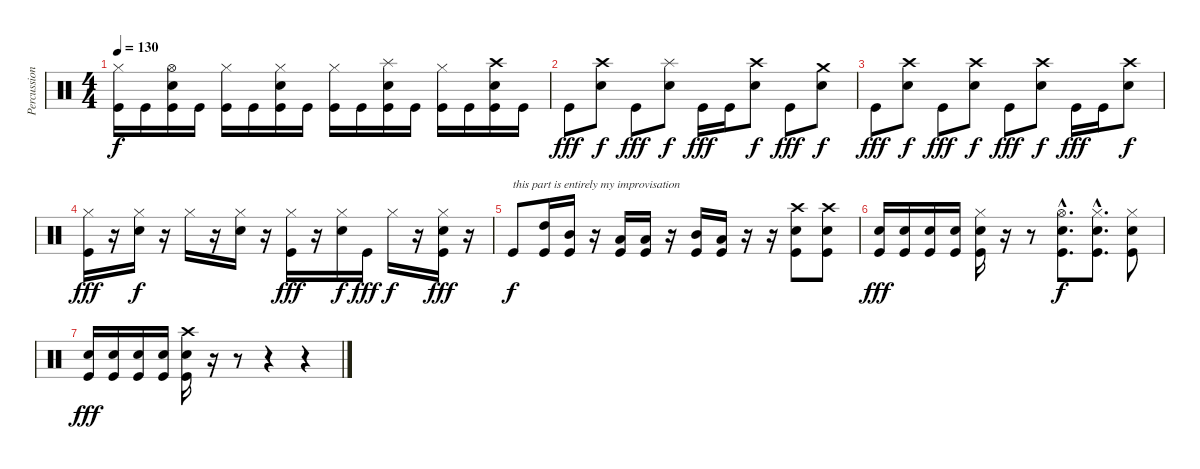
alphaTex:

\track ("Percussion" "Percussion") {instrument percussion}
\staff {score}
\articulation defaults
\ts (4 4)
\tempo 130
\clef neutral
\ks c
("Hi-Hat (closed)" "Kick (hit)").16{dy f} "Kick (hit)".16 ("Hi-Hat (open)" "Snare (hit) 2" "Kick (hit)").16 "Kick (hit)".16 ("Hi-Hat (closed)" "Kick (hit)").16 "Kick (hit)".16 ("Hi-Hat (closed)" "Snare (hit) 2" "Kick (hit)").16 "Kick (hit)".16 ("Hi-Hat (closed)" "Kick (hit)").16 "Kick (hit)".16 ("Splash (hit)" "Snare (hit) 2" "Kick (hit)").16 "Kick (hit)".16 ("Hi-Hat (closed)" "Kick (hit)").16 "Kick (hit)".16 ("Crash high (hit)" "Snare (hit) 2" "Kick (hit)").16 "Kick (hit)".16 |
"Kick (hit)".8{dy fff} ("Crash high (hit)" "Snare (hit) 2").8{dy f} "Kick (hit)".8{dy fff} ("Splash (hit)" "Snare (hit) 2").8{dy f} "Kick (hit)".16{dy fff} "Kick (hit)".16 ("Crash high (hit)" "Snare (hit) 2").8{dy f} "Kick (hit)".8{dy fff} ("Crash medium (hit)" "Snare (hit) 2").8{dy f} |
"Kick (hit)".8{dy fff} ("Crash high (hit)" "Snare (hit) 2").8{dy f} "Kick (hit)".8{dy fff} ("Crash high (hit)" "Snare (hit) 2").8{dy f} "Kick (hit)".8{dy fff} ("Crash high (hit)" "Snare (hit) 2").8{dy f} "Kick (hit)".16{dy fff} "Kick (hit)".16 ("Crash high (hit)" "Snare (hit) 2").8{dy f} |
("Hi-Hat (closed)" "Kick (hit)").16{dy fff} r.16 ("Hi-Hat (closed)" "Snare (hit) 2").16{dy f} r.16 "Hi-Hat (closed)".16 r.16 ("Hi-Hat (closed)" "Snare (hit) 2").16 r.16 ("Hi-Hat (closed)" "Kick (hit)").16{dy fff} r.16 ("Hi-Hat (closed)" "Snare (hit) 2").16{dy f} "Kick (hit)".16{dy fff} "Hi-Hat (closed)".16{dy f} r.16 ("Hi-Hat (closed)" "Snare (hit) 2" "Kick (hit)").16{dy fff} r.16 |
"Kick (hit)".8{txt "this part is entirely my improvisation" dy f} ("High Tom (hit)" "Kick (hit)").16 ("Mid Tom (hit)" "Kick (hit)").16 r.16 ("Low Tom (hit)" "Kick (hit)").16 ("Low Tom (hit)" "Kick (hit)").16 r.16 ("Mid Tom (hit)" "Kick (hit)").16 ("Low Tom (hit)" "Kick (hit)").16 r.16 r.16 ("Crash high (hit)" "Snare (hit) 2" "Kick (hit)").8 ("Crash high (hit)" "Snare (hit) 2" "Kick (hit)").8 |
("Snare (hit) 2" "Kick (hit)").16{dy fff} ("Snare (hit) 2" "Kick (hit)").16 ("Snare (hit) 2" "Kick (hit)").16 ("Snare (hit) 2" "Kick (hit)").16 ("Hi-Hat (closed)" "Snare (hit) 2" "Kick (hit)").16 r.16 r.8 ("Hi-Hat (open)"{hac} "Snare (hit) 2"{hac} "Kick (hit)"{hac}).8{d dy f} ("Hi-Hat (closed)"{hac} "Snare (hit) 2"{hac} "Kick (hit)"{hac}).8{d} ("Hi-Hat (closed)" "Snare (hit) 2" "Kick (hit)").8 |
("Snare (hit) 2" "Kick (hit)").16{dy fff} ("Snare (hit) 2" "Kick (hit)").16 ("Snare (hit) 2" "Kick (hit)").16 ("Snare (hit) 2" "Kick (hit)").16 ("Crash high (hit)" "Snare (hit) 2" "Kick (hit)").16 r.16 r.8 r.4 r.4
